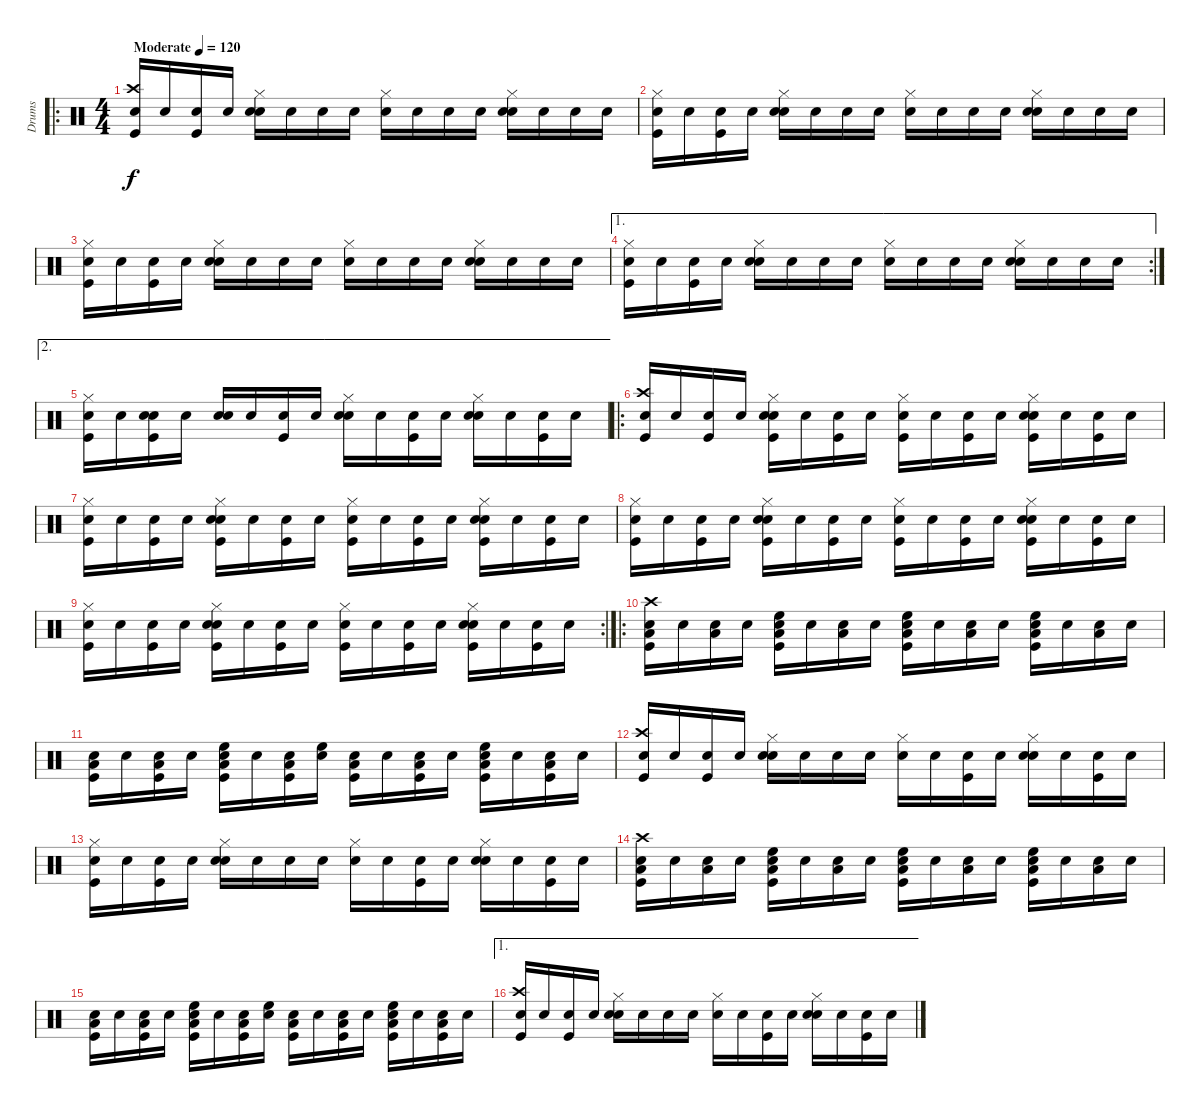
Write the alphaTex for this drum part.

\track ("Drums" "Drums") {instrument percussion}
\staff {score}
\articulation defaults
\ro
\ts (4 4)
\tempo (120 "Moderate")
\clef neutral
\ks c
("Snare (hit)" "Crash high (hit)" "Kick (hit)").16{dy f} "Snare (hit)".16 ("Snare (hit)" "Kick (hit)").16 "Snare (hit)".16 ("Snare (hit)" "Snare (hit) 2" "Hi-Hat (closed)").16 "Snare (hit)".16 "Snare (hit)".16 "Snare (hit)".16 ("Snare (hit)" "Hi-Hat (closed)").16 "Snare (hit)".16 "Snare (hit)".16 "Snare (hit)".16 ("Snare (hit)" "Snare (hit) 2" "Hi-Hat (closed)").16 "Snare (hit)".16 "Snare (hit)".16 "Snare (hit)".16 |
("Snare (hit)" "Hi-Hat (closed)" "Kick (hit)").16 "Snare (hit)".16 ("Snare (hit)" "Kick (hit)").16 "Snare (hit)".16 ("Snare (hit)" "Snare (hit) 2" "Hi-Hat (closed)").16 "Snare (hit)".16 "Snare (hit)".16 "Snare (hit)".16 ("Snare (hit)" "Hi-Hat (closed)").16 "Snare (hit)".16 "Snare (hit)".16 "Snare (hit)".16 ("Snare (hit)" "Snare (hit) 2" "Hi-Hat (closed)").16 "Snare (hit)".16 "Snare (hit)".16 "Snare (hit)".16 |
("Snare (hit)" "Hi-Hat (closed)" "Kick (hit)").16 "Snare (hit)".16 ("Snare (hit)" "Kick (hit)").16 "Snare (hit)".16 ("Snare (hit)" "Snare (hit) 2" "Hi-Hat (closed)").16 "Snare (hit)".16 "Snare (hit)".16 "Snare (hit)".16 ("Snare (hit)" "Hi-Hat (closed)").16 "Snare (hit)".16 "Snare (hit)".16 "Snare (hit)".16 ("Snare (hit)" "Snare (hit) 2" "Hi-Hat (closed)").16 "Snare (hit)".16 "Snare (hit)".16 "Snare (hit)".16 |
\ae 1
\rc 2
("Snare (hit)" "Hi-Hat (closed)" "Kick (hit)").16 "Snare (hit)".16 ("Snare (hit)" "Kick (hit)").16 "Snare (hit)".16 ("Snare (hit)" "Snare (hit) 2" "Hi-Hat (closed)").16 "Snare (hit)".16 "Snare (hit)".16 "Snare (hit)".16 ("Snare (hit)" "Hi-Hat (closed)").16 "Snare (hit)".16 "Snare (hit)".16 "Snare (hit)".16 ("Snare (hit)" "Snare (hit) 2" "Hi-Hat (closed)").16 "Snare (hit)".16 "Snare (hit)".16 "Snare (hit)".16 |
\ae 2
("Snare (hit)" "Hi-Hat (closed)" "Kick (hit)").16 "Snare (hit)".16 ("Snare (hit)" "Snare (hit) 2" "Kick (hit)").16 "Snare (hit)".16 ("Snare (hit)" "Snare (hit) 2").16 "Snare (hit)".16 ("Snare (hit)" "Kick (hit)").16 "Snare (hit)".16 ("Snare (hit)" "Snare (hit) 2" "Hi-Hat (closed)").16 "Snare (hit)".16 ("Snare (hit)" "Kick (hit)").16 "Snare (hit)".16 ("Snare (hit)" "Snare (hit) 2" "Hi-Hat (closed)").16 "Snare (hit)".16 ("Snare (hit)" "Kick (hit)").16 "Snare (hit)".16 |
\ro
("Snare (hit)" "Crash high (hit)" "Kick (hit)").16 "Snare (hit)".16 ("Snare (hit)" "Kick (hit)").16 "Snare (hit)".16 ("Snare (hit)" "Snare (hit) 2" "Hi-Hat (closed)" "Kick (hit)").16 "Snare (hit)".16 ("Snare (hit)" "Kick (hit)").16 "Snare (hit)".16 ("Snare (hit)" "Hi-Hat (closed)" "Kick (hit)").16 "Snare (hit)".16 ("Snare (hit)" "Kick (hit)").16 "Snare (hit)".16 ("Snare (hit)" "Snare (hit) 2" "Hi-Hat (closed)" "Kick (hit)").16 "Snare (hit)".16 ("Snare (hit)" "Kick (hit)").16 "Snare (hit)".16 |
("Snare (hit)" "Hi-Hat (closed)" "Kick (hit)").16 "Snare (hit)".16 ("Snare (hit)" "Kick (hit)").16 "Snare (hit)".16 ("Snare (hit)" "Snare (hit) 2" "Hi-Hat (closed)" "Kick (hit)").16 "Snare (hit)".16 ("Snare (hit)" "Kick (hit)").16 "Snare (hit)".16 ("Snare (hit)" "Hi-Hat (closed)" "Kick (hit)").16 "Snare (hit)".16 ("Snare (hit)" "Kick (hit)").16 "Snare (hit)".16 ("Snare (hit)" "Snare (hit) 2" "Hi-Hat (closed)" "Kick (hit)").16 "Snare (hit)".16 ("Snare (hit)" "Kick (hit)").16 "Snare (hit)".16 |
("Snare (hit)" "Hi-Hat (closed)" "Kick (hit)").16 "Snare (hit)".16 ("Snare (hit)" "Kick (hit)").16 "Snare (hit)".16 ("Snare (hit)" "Snare (hit) 2" "Hi-Hat (closed)" "Kick (hit)").16 "Snare (hit)".16 ("Snare (hit)" "Kick (hit)").16 "Snare (hit)".16 ("Snare (hit)" "Hi-Hat (closed)" "Kick (hit)").16 "Snare (hit)".16 ("Snare (hit)" "Kick (hit)").16 "Snare (hit)".16 ("Snare (hit)" "Snare (hit) 2" "Hi-Hat (closed)" "Kick (hit)").16 "Snare (hit)".16 ("Snare (hit)" "Kick (hit)").16 "Snare (hit)".16 |
\rc 2
("Snare (hit)" "Hi-Hat (closed)" "Kick (hit)").16 "Snare (hit)".16 ("Snare (hit)" "Kick (hit)").16 "Snare (hit)".16 ("Snare (hit)" "Snare (hit) 2" "Hi-Hat (closed)" "Kick (hit)").16 "Snare (hit)".16 ("Snare (hit)" "Kick (hit)").16 "Snare (hit)".16 ("Snare (hit)" "Hi-Hat (closed)" "Kick (hit)").16 "Snare (hit)".16 ("Snare (hit)" "Kick (hit)").16 "Snare (hit)".16 ("Snare (hit)" "Snare (hit) 2" "Hi-Hat (closed)" "Kick (hit)").16 "Snare (hit)".16 ("Snare (hit)" "Kick (hit)").16 "Snare (hit)".16 |
\ro
("Snare (hit)" "Crash high (hit)" "Low Floor Tom (hit)" "Kick (hit)").16 "Snare (hit)".16 ("Snare (hit)" "Low Floor Tom (hit)").16 "Snare (hit)".16 ("Snare (hit)" "High Floor Tom (hit)" "Low Floor Tom (hit)" "Kick (hit)").16 "Snare (hit)".16 ("Snare (hit)" "Low Floor Tom (hit)").16 "Snare (hit)".16 ("Snare (hit)" "High Floor Tom (hit)" "Low Floor Tom (hit)" "Kick (hit)").16 "Snare (hit)".16 ("Snare (hit)" "Low Floor Tom (hit)").16 "Snare (hit)".16 ("Snare (hit)" "High Floor Tom (hit)" "Low Floor Tom (hit)" "Kick (hit)").16 "Snare (hit)".16 ("Snare (hit)" "Low Floor Tom (hit)").16 "Snare (hit)".16 |
("Snare (hit)" "Low Floor Tom (hit)" "Kick (hit)").16 "Snare (hit)".16 ("Snare (hit)" "Low Floor Tom (hit)" "Kick (hit)").16 "Snare (hit)".16 ("Snare (hit)" "High Floor Tom (hit)" "Low Floor Tom (hit)" "Kick (hit)").16 "Snare (hit)".16 ("Snare (hit)" "Low Floor Tom (hit)" "Kick (hit)").16 ("Snare (hit)" "High Floor Tom (hit)").16 ("Snare (hit)" "Low Floor Tom (hit)" "Kick (hit)").16 "Snare (hit)".16 ("Snare (hit)" "Low Floor Tom (hit)" "Kick (hit)").16 "Snare (hit)".16 ("Snare (hit)" "High Floor Tom (hit)" "Low Floor Tom (hit)" "Kick (hit)").16 "Snare (hit)".16 ("Snare (hit)" "Low Floor Tom (hit)" "Kick (hit)").16 "Snare (hit)".16 |
("Snare (hit)" "Crash high (hit)" "Kick (hit)").16 "Snare (hit)".16 ("Snare (hit)" "Kick (hit)").16 "Snare (hit)".16 ("Snare (hit)" "Snare (hit) 2" "Hi-Hat (closed)").16 "Snare (hit)".16 "Snare (hit)".16 "Snare (hit)".16 ("Snare (hit)" "Hi-Hat (closed)").16 "Snare (hit)".16 ("Snare (hit)" "Kick (hit)").16 "Snare (hit)".16 ("Snare (hit)" "Snare (hit) 2" "Hi-Hat (closed)").16 "Snare (hit)".16 ("Snare (hit)" "Kick (hit)").16 "Snare (hit)".16 |
("Snare (hit)" "Hi-Hat (closed)" "Kick (hit)").16 "Snare (hit)".16 ("Snare (hit)" "Kick (hit)").16 "Snare (hit)".16 ("Snare (hit)" "Snare (hit) 2" "Hi-Hat (closed)").16 "Snare (hit)".16 "Snare (hit)".16 "Snare (hit)".16 ("Snare (hit)" "Hi-Hat (closed)").16 "Snare (hit)".16 ("Snare (hit)" "Kick (hit)").16 "Snare (hit)".16 ("Snare (hit)" "Snare (hit) 2" "Hi-Hat (closed)").16 "Snare (hit)".16 ("Snare (hit)" "Kick (hit)").16 "Snare (hit)".16 |
("Snare (hit)" "Crash high (hit)" "Low Floor Tom (hit)" "Kick (hit)").16 "Snare (hit)".16 ("Snare (hit)" "Low Floor Tom (hit)").16 "Snare (hit)".16 ("Snare (hit)" "High Floor Tom (hit)" "Low Floor Tom (hit)" "Kick (hit)").16 "Snare (hit)".16 ("Snare (hit)" "Low Floor Tom (hit)").16 "Snare (hit)".16 ("Snare (hit)" "High Floor Tom (hit)" "Low Floor Tom (hit)" "Kick (hit)").16 "Snare (hit)".16 ("Snare (hit)" "Low Floor Tom (hit)").16 "Snare (hit)".16 ("Snare (hit)" "High Floor Tom (hit)" "Low Floor Tom (hit)" "Kick (hit)").16 "Snare (hit)".16 ("Snare (hit)" "Low Floor Tom (hit)").16 "Snare (hit)".16 |
("Snare (hit)" "Low Floor Tom (hit)" "Kick (hit)").16 "Snare (hit)".16 ("Snare (hit)" "Low Floor Tom (hit)" "Kick (hit)").16 "Snare (hit)".16 ("Snare (hit)" "High Floor Tom (hit)" "Low Floor Tom (hit)" "Kick (hit)").16 "Snare (hit)".16 ("Snare (hit)" "Low Floor Tom (hit)" "Kick (hit)").16 ("Snare (hit)" "High Floor Tom (hit)").16 ("Snare (hit)" "Low Floor Tom (hit)" "Kick (hit)").16 "Snare (hit)".16 ("Snare (hit)" "Low Floor Tom (hit)" "Kick (hit)").16 "Snare (hit)".16 ("Snare (hit)" "High Floor Tom (hit)" "Low Floor Tom (hit)" "Kick (hit)").16 "Snare (hit)".16 ("Snare (hit)" "Low Floor Tom (hit)" "Kick (hit)").16 "Snare (hit)".16 |
\ae 1
("Snare (hit)" "Crash high (hit)" "Kick (hit)").16 "Snare (hit)".16 ("Snare (hit)" "Kick (hit)").16 "Snare (hit)".16 ("Snare (hit)" "Snare (hit) 2" "Hi-Hat (closed)").16 "Snare (hit)".16 "Snare (hit)".16 "Snare (hit)".16 ("Snare (hit)" "Hi-Hat (closed)").16 "Snare (hit)".16 ("Snare (hit)" "Kick (hit)").16 "Snare (hit)".16 ("Snare (hit)" "Snare (hit) 2" "Hi-Hat (closed)").16 "Snare (hit)".16 ("Snare (hit)" "Kick (hit)").16 "Snare (hit)".16
